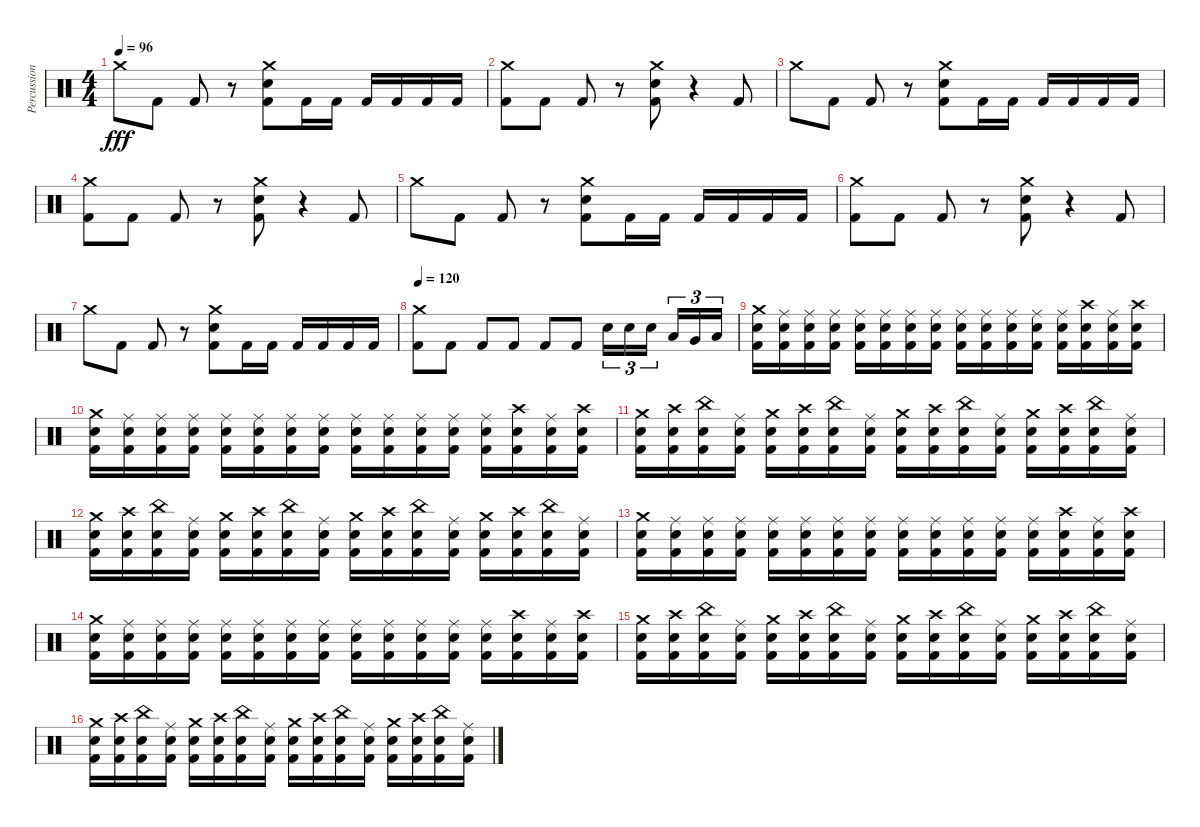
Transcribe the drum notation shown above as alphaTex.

\track ("Percussion" "Percussion") {instrument percussion}
\staff {score}
\articulation defaults
\ts (4 4)
\tempo 96
\clef neutral
\ks c "Crash medium (hit)".8{dy fff} "Kick (hit) 2".8 "Kick (hit) 2".8
r.8 ("Crash medium (hit)" "Electric Snare (hit)" "Kick (hit) 2").8 "Kick (hit) 2".16 "Kick (hit) 2".16 "Kick (hit) 2".16 "Kick (hit) 2".16 "Kick (hit) 2".16 "Kick (hit) 2".16 |
("Crash medium (hit)" "Kick (hit) 2").8 "Kick (hit) 2".8 "Kick (hit) 2".8 r.8 ("Crash medium (hit)" "Electric Snare (hit)" "Kick (hit) 2").8 r.4 "Kick (hit) 2".8 |
"Crash medium (hit)".8 "Kick (hit) 2".8 "Kick (hit) 2".8 r.8 ("Crash medium (hit)" "Electric Snare (hit)" "Kick (hit) 2").8 "Kick (hit) 2".16 "Kick (hit) 2".16 "Kick (hit) 2".16 "Kick (hit) 2".16 "Kick (hit) 2".16 "Kick (hit) 2".16 |
("Crash medium (hit)" "Kick (hit) 2").8 "Kick (hit) 2".8 "Kick (hit) 2".8 r.8 ("Crash medium (hit)" "Electric Snare (hit)" "Kick (hit) 2").8 r.4 "Kick (hit) 2".8 |
"Crash medium (hit)".8 "Kick (hit) 2".8 "Kick (hit) 2".8 r.8 ("Crash medium (hit)" "Electric Snare (hit)" "Kick (hit) 2").8 "Kick (hit) 2".16 "Kick (hit) 2".16 "Kick (hit) 2".16 "Kick (hit) 2".16 "Kick (hit) 2".16 "Kick (hit) 2".16 |
("Crash medium (hit)" "Kick (hit) 2").8 "Kick (hit) 2".8 "Kick (hit) 2".8 r.8 ("Crash medium (hit)" "Electric Snare (hit)" "Kick (hit) 2").8 r.4 "Kick (hit) 2".8 |
"Crash medium (hit)".8 "Kick (hit) 2".8 "Kick (hit) 2".8 r.8 ("Crash medium (hit)" "Electric Snare (hit)" "Kick (hit) 2").8 "Kick (hit) 2".16 "Kick (hit) 2".16 "Kick (hit) 2".16 "Kick (hit) 2".16 "Kick (hit) 2".16 "Kick (hit) 2".16 |
\tempo 120
("Crash medium (hit)" "Kick (hit) 2").8 "Kick (hit) 2".8 "Kick (hit) 2".8 "Kick (hit) 2".8 "Kick (hit) 2".8 "Kick (hit) 2".8 "Electric Snare (hit)".16{tu (3 2)} "Electric Snare (hit)".16{tu (3 2)} "Electric Snare (hit)".16{tu (3 2) beam splitsecondary} "Low Tom (hit)".16{tu (3 2)} "Very Low Tom (hit)".16{tu (3 2)} "Low Floor Tom (hit)".16{tu (3 2)} |
("Crash medium (hit)" "Electric Snare (hit)" "Kick (hit) 2").16 ("Ride (middle)" "Electric Snare (hit)" "Kick (hit) 2").16 ("Ride (middle)" "Electric Snare (hit)" "Kick (hit) 2").16 ("Ride (middle)" "Electric Snare (hit)" "Kick (hit) 2").16 ("Ride (middle)" "Electric Snare (hit)" "Kick (hit) 2").16 ("Ride (middle)" "Electric Snare (hit)" "Kick (hit) 2").16 ("Ride (middle)" "Electric Snare (hit)" "Kick (hit) 2").16 ("Ride (middle)" "Electric Snare (hit)" "Kick (hit) 2").16 ("Ride (middle)" "Electric Snare (hit)" "Kick (hit) 2").16 ("Ride (middle)" "Electric Snare (hit)" "Kick (hit) 2").16 ("Ride (middle)" "Electric Snare (hit)" "Kick (hit) 2").16 ("Ride (middle)" "Electric Snare (hit)" "Kick (hit) 2").16 ("Ride (middle)" "Electric Snare (hit)" "Kick (hit) 2").16 ("Crash high (hit)" "Electric Snare (hit)" "Kick (hit) 2").16 ("Ride (middle)" "Electric Snare (hit)" "Kick (hit) 2").16 ("Crash high (hit)" "Electric Snare (hit)" "Kick (hit) 2").16 |
("Crash medium (hit)" "Electric Snare (hit)" "Kick (hit) 2").16 ("Ride (middle)" "Electric Snare (hit)" "Kick (hit) 2").16 ("Ride (middle)" "Electric Snare (hit)" "Kick (hit) 2").16 ("Ride (middle)" "Electric Snare (hit)" "Kick (hit) 2").16 ("Ride (middle)" "Electric Snare (hit)" "Kick (hit) 2").16 ("Ride (middle)" "Electric Snare (hit)" "Kick (hit) 2").16 ("Ride (middle)" "Electric Snare (hit)" "Kick (hit) 2").16 ("Ride (middle)" "Electric Snare (hit)" "Kick (hit) 2").16 ("Ride (middle)" "Electric Snare (hit)" "Kick (hit) 2").16 ("Ride (middle)" "Electric Snare (hit)" "Kick (hit) 2").16 ("Ride (middle)" "Electric Snare (hit)" "Kick (hit) 2").16 ("Ride (middle)" "Electric Snare (hit)" "Kick (hit) 2").16 ("Ride (middle)" "Electric Snare (hit)" "Kick (hit) 2").16 ("Crash high (hit)" "Electric Snare (hit)" "Kick (hit) 2").16 ("Ride (middle)" "Electric Snare (hit)" "Kick (hit) 2").16 ("Crash high (hit)" "Electric Snare (hit)" "Kick (hit) 2").16 |
("Crash medium (hit)" "Electric Snare (hit)" "Kick (hit) 2").16 ("Crash high (hit)" "Electric Snare (hit)" "Kick (hit) 2").16 ("China (hit)" "Electric Snare (hit)" "Kick (hit) 2").16 ("Ride (middle)" "Electric Snare (hit)" "Kick (hit) 2").16 ("Crash medium (hit)" "Electric Snare (hit)" "Kick (hit) 2").16 ("Crash high (hit)" "Electric Snare (hit)" "Kick (hit) 2").16 ("China (hit)" "Electric Snare (hit)" "Kick (hit) 2").16 ("Ride (middle)" "Electric Snare (hit)" "Kick (hit) 2").16 ("Crash medium (hit)" "Electric Snare (hit)" "Kick (hit) 2").16 ("Crash high (hit)" "Electric Snare (hit)" "Kick (hit) 2").16 ("China (hit)" "Electric Snare (hit)" "Kick (hit) 2").16 ("Ride (middle)" "Electric Snare (hit)" "Kick (hit) 2").16 ("Crash medium (hit)" "Electric Snare (hit)" "Kick (hit) 2").16 ("Crash high (hit)" "Electric Snare (hit)" "Kick (hit) 2").16 ("China (hit)" "Electric Snare (hit)" "Kick (hit) 2").16 ("Ride (middle)" "Electric Snare (hit)" "Kick (hit) 2").16 |
("Crash medium (hit)" "Electric Snare (hit)" "Kick (hit) 2").16 ("Crash high (hit)" "Electric Snare (hit)" "Kick (hit) 2").16 ("China (hit)" "Electric Snare (hit)" "Kick (hit) 2").16 ("Ride (middle)" "Electric Snare (hit)" "Kick (hit) 2").16 ("Crash medium (hit)" "Electric Snare (hit)" "Kick (hit) 2").16 ("Crash high (hit)" "Electric Snare (hit)" "Kick (hit) 2").16 ("China (hit)" "Electric Snare (hit)" "Kick (hit) 2").16 ("Ride (middle)" "Electric Snare (hit)" "Kick (hit) 2").16 ("Crash medium (hit)" "Electric Snare (hit)" "Kick (hit) 2").16 ("Crash high (hit)" "Electric Snare (hit)" "Kick (hit) 2").16 ("China (hit)" "Electric Snare (hit)" "Kick (hit) 2").16 ("Ride (middle)" "Electric Snare (hit)" "Kick (hit) 2").16 ("Crash medium (hit)" "Electric Snare (hit)" "Kick (hit) 2").16 ("Crash high (hit)" "Electric Snare (hit)" "Kick (hit) 2").16 ("China (hit)" "Electric Snare (hit)" "Kick (hit) 2").16 ("Ride (middle)" "Electric Snare (hit)" "Kick (hit) 2").16 |
("Crash medium (hit)" "Electric Snare (hit)" "Kick (hit) 2").16 ("Ride (middle)" "Electric Snare (hit)" "Kick (hit) 2").16 ("Ride (middle)" "Electric Snare (hit)" "Kick (hit) 2").16 ("Ride (middle)" "Electric Snare (hit)" "Kick (hit) 2").16 ("Ride (middle)" "Electric Snare (hit)" "Kick (hit) 2").16 ("Ride (middle)" "Electric Snare (hit)" "Kick (hit) 2").16 ("Ride (middle)" "Electric Snare (hit)" "Kick (hit) 2").16 ("Ride (middle)" "Electric Snare (hit)" "Kick (hit) 2").16 ("Ride (middle)" "Electric Snare (hit)" "Kick (hit) 2").16 ("Ride (middle)" "Electric Snare (hit)" "Kick (hit) 2").16 ("Ride (middle)" "Electric Snare (hit)" "Kick (hit) 2").16 ("Ride (middle)" "Electric Snare (hit)" "Kick (hit) 2").16 ("Ride (middle)" "Electric Snare (hit)" "Kick (hit) 2").16 ("Crash high (hit)" "Electric Snare (hit)" "Kick (hit) 2").16 ("Ride (middle)" "Electric Snare (hit)" "Kick (hit) 2").16 ("Crash high (hit)" "Electric Snare (hit)" "Kick (hit) 2").16 |
("Crash medium (hit)" "Electric Snare (hit)" "Kick (hit) 2").16 ("Ride (middle)" "Electric Snare (hit)" "Kick (hit) 2").16 ("Ride (middle)" "Electric Snare (hit)" "Kick (hit) 2").16 ("Ride (middle)" "Electric Snare (hit)" "Kick (hit) 2").16 ("Ride (middle)" "Electric Snare (hit)" "Kick (hit) 2").16 ("Ride (middle)" "Electric Snare (hit)" "Kick (hit) 2").16 ("Ride (middle)" "Electric Snare (hit)" "Kick (hit) 2").16 ("Ride (middle)" "Electric Snare (hit)" "Kick (hit) 2").16 ("Ride (middle)" "Electric Snare (hit)" "Kick (hit) 2").16 ("Ride (middle)" "Electric Snare (hit)" "Kick (hit) 2").16 ("Ride (middle)" "Electric Snare (hit)" "Kick (hit) 2").16 ("Ride (middle)" "Electric Snare (hit)" "Kick (hit) 2").16 ("Ride (middle)" "Electric Snare (hit)" "Kick (hit) 2").16 ("Crash high (hit)" "Electric Snare (hit)" "Kick (hit) 2").16 ("Ride (middle)" "Electric Snare (hit)" "Kick (hit) 2").16 ("Crash high (hit)" "Electric Snare (hit)" "Kick (hit) 2").16 |
("Crash medium (hit)" "Electric Snare (hit)" "Kick (hit) 2").16 ("Crash high (hit)" "Electric Snare (hit)" "Kick (hit) 2").16 ("China (hit)" "Electric Snare (hit)" "Kick (hit) 2").16 ("Ride (middle)" "Electric Snare (hit)" "Kick (hit) 2").16 ("Crash medium (hit)" "Electric Snare (hit)" "Kick (hit) 2").16 ("Crash high (hit)" "Electric Snare (hit)" "Kick (hit) 2").16 ("China (hit)" "Electric Snare (hit)" "Kick (hit) 2").16 ("Ride (middle)" "Electric Snare (hit)" "Kick (hit) 2").16 ("Crash medium (hit)" "Electric Snare (hit)" "Kick (hit) 2").16 ("Crash high (hit)" "Electric Snare (hit)" "Kick (hit) 2").16 ("China (hit)" "Electric Snare (hit)" "Kick (hit) 2").16 ("Ride (middle)" "Electric Snare (hit)" "Kick (hit) 2").16 ("Crash medium (hit)" "Electric Snare (hit)" "Kick (hit) 2").16 ("Crash high (hit)" "Electric Snare (hit)" "Kick (hit) 2").16 ("China (hit)" "Electric Snare (hit)" "Kick (hit) 2").16 ("Ride (middle)" "Electric Snare (hit)" "Kick (hit) 2").16 |
("Crash medium (hit)" "Electric Snare (hit)" "Kick (hit) 2").16 ("Crash high (hit)" "Electric Snare (hit)" "Kick (hit) 2").16 ("China (hit)" "Electric Snare (hit)" "Kick (hit) 2").16 ("Ride (middle)" "Electric Snare (hit)" "Kick (hit) 2").16 ("Crash medium (hit)" "Electric Snare (hit)" "Kick (hit) 2").16 ("Crash high (hit)" "Electric Snare (hit)" "Kick (hit) 2").16 ("China (hit)" "Electric Snare (hit)" "Kick (hit) 2").16 ("Ride (middle)" "Electric Snare (hit)" "Kick (hit) 2").16 ("Crash medium (hit)" "Electric Snare (hit)" "Kick (hit) 2").16 ("Crash high (hit)" "Electric Snare (hit)" "Kick (hit) 2").16 ("China (hit)" "Electric Snare (hit)" "Kick (hit) 2").16 ("Ride (middle)" "Electric Snare (hit)" "Kick (hit) 2").16 ("Crash medium (hit)" "Electric Snare (hit)" "Kick (hit) 2").16 ("Crash high (hit)" "Electric Snare (hit)" "Kick (hit) 2").16 ("China (hit)" "Electric Snare (hit)" "Kick (hit) 2").16 ("Ride (middle)" "Electric Snare (hit)" "Kick (hit) 2").16
